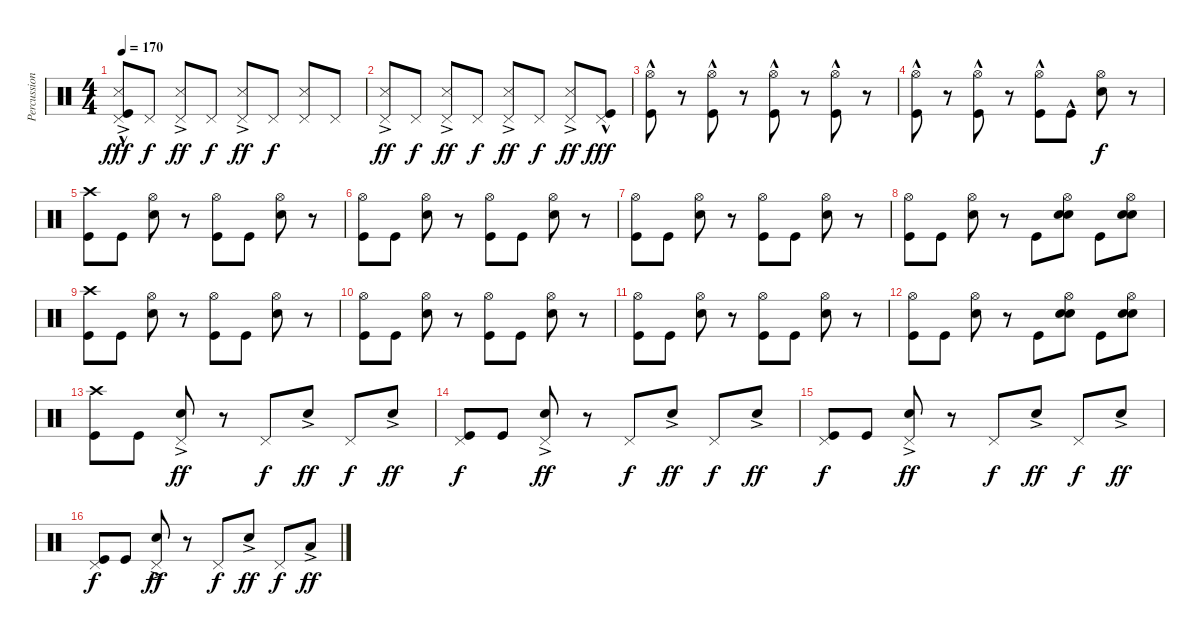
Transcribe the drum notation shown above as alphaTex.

\track ("Percussion" "Percussion") {instrument percussion}
\staff {score}
\articulation defaults
\ts (4 4)
\tempo 170
\clef neutral
\ks c
("Pedal Hi-Hat (hit)" "Snare (side stick) 3"{ac} "Kick (hit)"{hac}).8{dy fff} "Pedal Hi-Hat (hit)".8{dy f} ("Pedal Hi-Hat (hit)" "Snare (side stick) 3"{ac}).8{dy ff} "Pedal Hi-Hat (hit)".8{dy f} ("Pedal Hi-Hat (hit)" "Snare (side stick) 3"{ac}).8{dy ff} "Pedal Hi-Hat (hit)".8{dy f} ("Pedal Hi-Hat (hit)" "Snare (side stick) 3").8 "Pedal Hi-Hat (hit)".8 |
("Pedal Hi-Hat (hit)" "Snare (side stick) 3"{ac}).8{dy ff} "Pedal Hi-Hat (hit)".8{dy f} ("Pedal Hi-Hat (hit)" "Snare (side stick) 3"{ac}).8{dy ff} "Pedal Hi-Hat (hit)".8{dy f} ("Pedal Hi-Hat (hit)" "Snare (side stick) 3"{ac}).8{dy ff} "Pedal Hi-Hat (hit)".8{dy f} ("Pedal Hi-Hat (hit)" "Snare (side stick) 3"{ac}).8{dy ff} ("Pedal Hi-Hat (hit)" "Kick (hit)"{hac}).8{dy fff} |
("Hi-Hat (open)" "Kick (hit)"{hac}).8 r.8 ("Hi-Hat (open)" "Kick (hit)"{hac}).8 r.8 ("Hi-Hat (open)" "Kick (hit)"{hac}).8 r.8 ("Hi-Hat (open)" "Kick (hit)"{hac}).8 r.8 |
("Hi-Hat (open)" "Kick (hit)"{hac}).8 r.8 ("Hi-Hat (open)" "Kick (hit)"{hac}).8 r.8 ("Hi-Hat (open)" "Kick (hit)"{hac}).8 "Kick (hit)"{hac}.8 ("Hi-Hat (open)" "Snare (hit) 2").8{dy f} r.8 |
("Crash high (hit)" "Kick (hit)").8 "Kick (hit)".8 ("Hi-Hat (open)" "Snare (hit) 2").8 r.8 ("Hi-Hat (open)" "Kick (hit)").8 "Kick (hit)".8 ("Hi-Hat (open)" "Snare (hit) 2").8 r.8 |
("Hi-Hat (open)" "Kick (hit)").8 "Kick (hit)".8 ("Hi-Hat (open)" "Snare (hit) 2").8 r.8 ("Hi-Hat (open)" "Kick (hit)").8 "Kick (hit)".8 ("Hi-Hat (open)" "Snare (hit) 2").8 r.8 |
("Hi-Hat (open)" "Kick (hit)").8 "Kick (hit)".8 ("Hi-Hat (open)" "Snare (hit) 2").8 r.8 ("Hi-Hat (open)" "Kick (hit)").8 "Kick (hit)".8 ("Hi-Hat (open)" "Snare (hit) 2").8 r.8 |
("Hi-Hat (open)" "Kick (hit)").8 "Kick (hit)".8 ("Hi-Hat (open)" "Snare (hit) 2").8 r.8 "Kick (hit)".8 ("Hi-Hat (open)" "Snare (hit) 2" "Snare (hit) 2").8 "Kick (hit)".8 ("Hi-Hat (open)" "Snare (hit) 2" "Snare (hit) 2").8 |
("Crash high (hit)" "Kick (hit)").8 "Kick (hit)".8 ("Hi-Hat (open)" "Snare (hit) 2").8 r.8 ("Hi-Hat (open)" "Kick (hit)").8 "Kick (hit)".8 ("Hi-Hat (open)" "Snare (hit) 2").8 r.8 |
("Hi-Hat (open)" "Kick (hit)").8 "Kick (hit)".8 ("Hi-Hat (open)" "Snare (hit) 2").8 r.8 ("Hi-Hat (open)" "Kick (hit)").8 "Kick (hit)".8 ("Hi-Hat (open)" "Snare (hit) 2").8 r.8 |
("Hi-Hat (open)" "Kick (hit)").8 "Kick (hit)".8 ("Hi-Hat (open)" "Snare (hit) 2").8 r.8 ("Hi-Hat (open)" "Kick (hit)").8 "Kick (hit)".8 ("Hi-Hat (open)" "Snare (hit) 2").8 r.8 |
("Hi-Hat (open)" "Kick (hit)").8 "Kick (hit)".8 ("Hi-Hat (open)" "Snare (hit) 2").8 r.8 "Kick (hit)".8 ("Hi-Hat (open)" "Snare (hit) 2" "Snare (hit) 2").8 "Kick (hit)".8 ("Hi-Hat (open)" "Snare (hit) 2" "Snare (hit) 2").8 |
("Crash high (hit)" "Kick (hit)").8 "Kick (hit)".8 ("Pedal Hi-Hat (hit)" "Snare (hit) 2"{ac}).8{dy ff} r.8 "Pedal Hi-Hat (hit)".8{dy f} "Snare (hit) 2"{ac}.8{dy ff} "Pedal Hi-Hat (hit)".8{dy f} "Snare (hit) 2"{ac}.8{dy ff} |
("Pedal Hi-Hat (hit)" "Kick (hit)").8{dy f} "Kick (hit)".8 ("Pedal Hi-Hat (hit)" "Snare (hit) 2"{ac}).8{dy ff} r.8 "Pedal Hi-Hat (hit)".8{dy f} "Snare (hit) 2"{ac}.8{dy ff} "Pedal Hi-Hat (hit)".8{dy f} "Snare (hit) 2"{ac}.8{dy ff} |
("Pedal Hi-Hat (hit)" "Kick (hit)").8{dy f} "Kick (hit)".8 ("Pedal Hi-Hat (hit)" "Snare (hit) 2"{ac}).8{dy ff} r.8 "Pedal Hi-Hat (hit)".8{dy f} "Snare (hit) 2"{ac}.8{dy ff} "Pedal Hi-Hat (hit)".8{dy f} "Snare (hit) 2"{ac}.8{dy ff} |
("Pedal Hi-Hat (hit)" "Kick (hit)").8{dy f} "Kick (hit)".8 ("Pedal Hi-Hat (hit)" "Snare (hit) 2"{ac}).8{dy ff} r.8 "Pedal Hi-Hat (hit)".8{dy f} "Snare (hit) 2"{ac}.8{dy ff} "Pedal Hi-Hat (hit)".8{dy f} "Low Tom (hit)"{ac}.8{dy ff}
